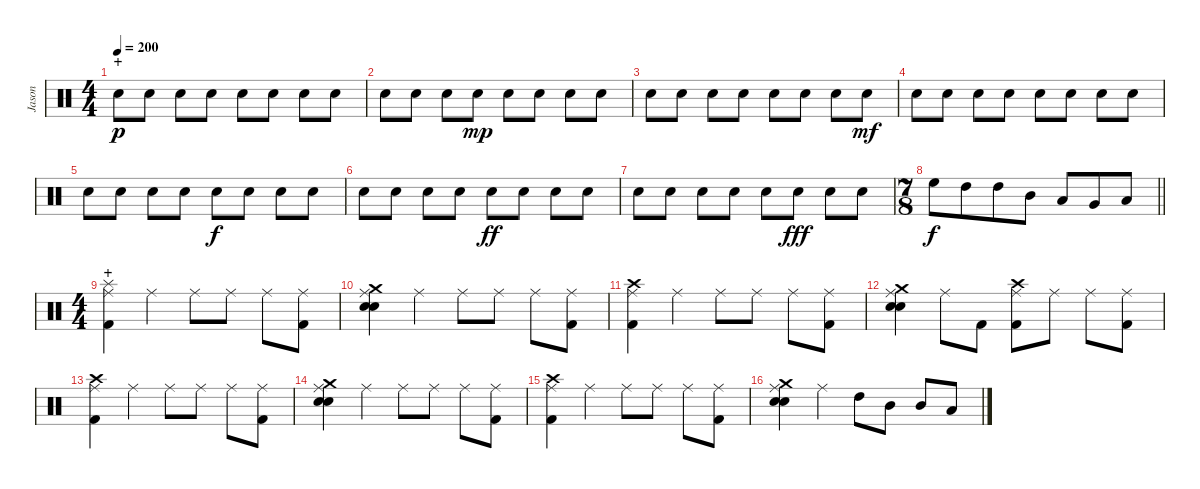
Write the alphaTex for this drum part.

\track ("Jason" "Jason") {instrument percussion}
\staff {score}
\articulation defaults
\ts (4 4)
\section ("" "+")
\tempo 200
\clef neutral
\ks c "Electric Snare (hit)".8{dy p} "Electric Snare (hit)".8 "Electric Snare (hit)".8 "Electric Snare (hit)".8 "Electric Snare (hit)".8 "Electric Snare (hit)".8 "Electric Snare (hit)".8 "Electric Snare (hit)".8
|
"Electric Snare (hit)".8 "Electric Snare (hit)".8 "Electric Snare (hit)".8 "Electric Snare (hit)".8{dy mp} "Electric Snare (hit)".8 "Electric Snare (hit)".8 "Electric Snare (hit)".8 "Electric Snare (hit)".8 |
"Electric Snare (hit)".8 "Electric Snare (hit)".8 "Electric Snare (hit)".8 "Electric Snare (hit)".8 "Electric Snare (hit)".8 "Electric Snare (hit)".8 "Electric Snare (hit)".8 "Electric Snare (hit)".8{dy mf} |
"Electric Snare (hit)".8 "Electric Snare (hit)".8 "Electric Snare (hit)".8 "Electric Snare (hit)".8 "Electric Snare (hit)".8 "Electric Snare (hit)".8 "Electric Snare (hit)".8 "Electric Snare (hit)".8 |
"Electric Snare (hit)".8 "Electric Snare (hit)".8 "Electric Snare (hit)".8 "Electric Snare (hit)".8 "Electric Snare (hit)".8{dy f} "Electric Snare (hit)".8 "Electric Snare (hit)".8 "Electric Snare (hit)".8 |
"Electric Snare (hit)".8 "Electric Snare (hit)".8 "Electric Snare (hit)".8 "Electric Snare (hit)".8 "Electric Snare (hit)".8{dy ff} "Electric Snare (hit)".8 "Electric Snare (hit)".8 "Electric Snare (hit)".8 |
"Electric Snare (hit)".8 "Electric Snare (hit)".8 "Electric Snare (hit)".8 "Electric Snare (hit)".8 "Electric Snare (hit)".8 "Electric Snare (hit)".8{dy fff} "Electric Snare (hit)".8 "Electric Snare (hit)".8 |
\ts (7 8)
\barLineRight lightlight "High Floor Tom (hit)".8{dy f} "High Tom (hit)".8 "High Tom (hit)".8 "Mid Tom (hit)".8 "Low Tom (hit)".8 "Very Low Tom (hit)".8 "Low Floor Tom (hit)".8
|
\ts (4 4)
\section ("" "+")
("Splash (hit)" "Ride (middle)" "Kick (hit) 2").4 "Ride (middle)".4 "Ride (middle)".8 "Ride (middle)".8 "Ride (middle)".8 ("Ride (middle)" "Kick (hit) 2").8 |
("Crash medium (hit)" "Ride (middle)" "Electric Snare (hit)" "Snare (hit) 2").4 "Ride (middle)".4 "Ride (middle)".8 "Ride (middle)".8 "Ride (middle)".8 ("Ride (middle)" "Kick (hit) 2").8 |
("Crash high (hit)" "Ride (middle)" "Kick (hit) 2").4 "Ride (middle)".4 "Ride (middle)".8 "Ride (middle)".8 "Ride (middle)".8 ("Ride (middle)" "Kick (hit) 2").8 |
("Crash medium (hit)" "Ride (middle)" "Electric Snare (hit)" "Snare (hit) 2").4 "Ride (middle)".8 "Kick (hit) 2".8 ("Crash high (hit)" "Ride (middle)" "Kick (hit) 2").8 "Ride (middle)".8 "Ride (middle)".8 ("Ride (middle)" "Kick (hit) 2").8 |
("Crash high (hit)" "Ride (middle)" "Kick (hit) 2").4 "Ride (middle)".4 "Ride (middle)".8 "Ride (middle)".8 "Ride (middle)".8 ("Ride (middle)" "Kick (hit) 2").8 |
("Crash medium (hit)" "Ride (middle)" "Electric Snare (hit)" "Snare (hit) 2").4 "Ride (middle)".4 "Ride (middle)".8 "Ride (middle)".8 "Ride (middle)".8 ("Ride (middle)" "Kick (hit) 2").8 |
("Crash high (hit)" "Ride (middle)" "Kick (hit) 2").4 "Ride (middle)".4 "Ride (middle)".8 "Ride (middle)".8 "Ride (middle)".8 ("Ride (middle)" "Kick (hit) 2").8 |
("Crash medium (hit)" "Ride (middle)" "Electric Snare (hit)" "Snare (hit) 2").4 "Ride (middle)".4 "High Tom (hit)".8 "Mid Tom (hit)".8 "Mid Tom (hit)".8 "Low Tom (hit)".8
